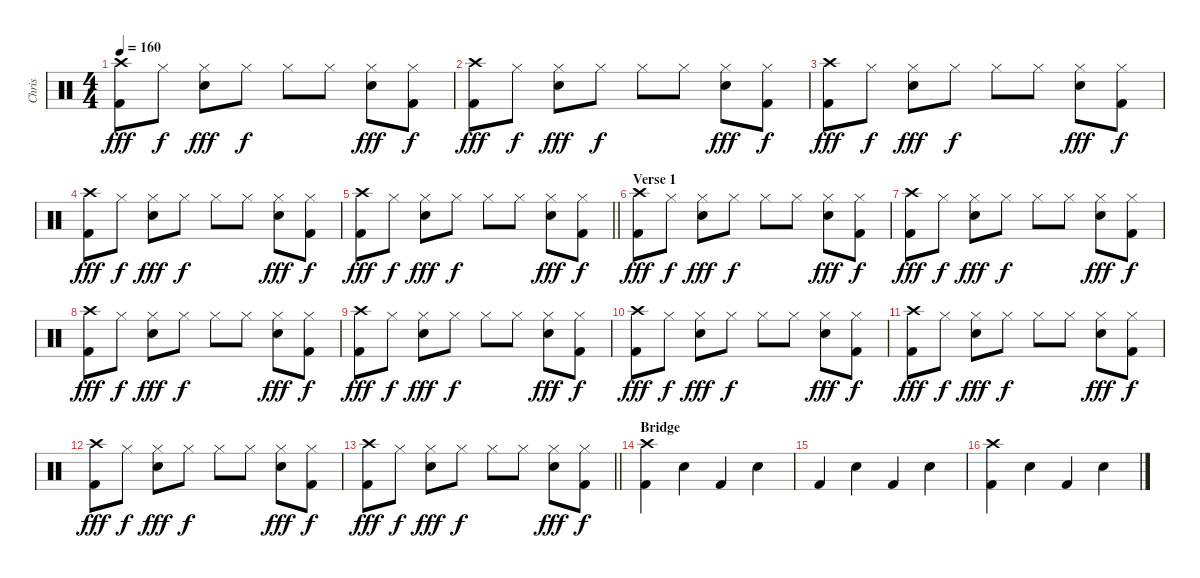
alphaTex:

\track ("Chris" "Chris") {instrument percussion}
\staff {score}
\articulation defaults
\ts (4 4)
\tempo 160
\clef neutral
\ks c
("Crash high (hit)" "Kick (hit) 2").8{dy fff} "Hi-Hat (closed)".8{dy f} ("Hi-Hat (closed)" "Snare (hit) 2").8{dy fff} "Hi-Hat (closed)".8{dy f} "Hi-Hat (closed)".8 "Hi-Hat (closed)".8 ("Hi-Hat (closed)" "Snare (hit) 2").8{dy fff} ("Hi-Hat (closed)" "Kick (hit) 2").8{dy f} |
("Crash high (hit)" "Kick (hit) 2").8{dy fff} "Hi-Hat (closed)".8{dy f} ("Hi-Hat (closed)" "Snare (hit) 2").8{dy fff} "Hi-Hat (closed)".8{dy f} "Hi-Hat (closed)".8 "Hi-Hat (closed)".8 ("Hi-Hat (closed)" "Snare (hit) 2").8{dy fff} ("Hi-Hat (closed)" "Kick (hit) 2").8{dy f} |
("Crash high (hit)" "Kick (hit) 2").8{dy fff} "Hi-Hat (closed)".8{dy f} ("Hi-Hat (closed)" "Snare (hit) 2").8{dy fff} "Hi-Hat (closed)".8{dy f} "Hi-Hat (closed)".8 "Hi-Hat (closed)".8 ("Hi-Hat (closed)" "Snare (hit) 2").8{dy fff} ("Hi-Hat (closed)" "Kick (hit) 2").8{dy f} |
("Crash high (hit)" "Kick (hit) 2").8{dy fff} "Hi-Hat (closed)".8{dy f} ("Hi-Hat (closed)" "Snare (hit) 2").8{dy fff} "Hi-Hat (closed)".8{dy f} "Hi-Hat (closed)".8 "Hi-Hat (closed)".8 ("Hi-Hat (closed)" "Snare (hit) 2").8{dy fff} ("Hi-Hat (closed)" "Kick (hit) 2").8{dy f} |
\barLineRight lightlight
("Crash high (hit)" "Kick (hit) 2").8{dy fff} "Hi-Hat (closed)".8{dy f} ("Hi-Hat (closed)" "Snare (hit) 2").8{dy fff} "Hi-Hat (closed)".8{dy f} "Hi-Hat (closed)".8 "Hi-Hat (closed)".8 ("Hi-Hat (closed)" "Snare (hit) 2").8{dy fff} ("Hi-Hat (closed)" "Kick (hit) 2").8{dy f} |
\section ("" "Verse 1")
("Crash high (hit)" "Kick (hit) 2").8{dy fff} "Hi-Hat (closed)".8{dy f} ("Hi-Hat (closed)" "Snare (hit) 2").8{dy fff} "Hi-Hat (closed)".8{dy f} "Hi-Hat (closed)".8 "Hi-Hat (closed)".8 ("Hi-Hat (closed)" "Snare (hit) 2").8{dy fff} ("Hi-Hat (closed)" "Kick (hit) 2").8{dy f} |
("Crash high (hit)" "Kick (hit) 2").8{dy fff} "Hi-Hat (closed)".8{dy f} ("Hi-Hat (closed)" "Snare (hit) 2").8{dy fff} "Hi-Hat (closed)".8{dy f} "Hi-Hat (closed)".8 "Hi-Hat (closed)".8 ("Hi-Hat (closed)" "Snare (hit) 2").8{dy fff} ("Hi-Hat (closed)" "Kick (hit) 2").8{dy f} |
("Crash high (hit)" "Kick (hit) 2").8{dy fff} "Hi-Hat (closed)".8{dy f} ("Hi-Hat (closed)" "Snare (hit) 2").8{dy fff} "Hi-Hat (closed)".8{dy f} "Hi-Hat (closed)".8 "Hi-Hat (closed)".8 ("Hi-Hat (closed)" "Snare (hit) 2").8{dy fff} ("Hi-Hat (closed)" "Kick (hit) 2").8{dy f} |
("Crash high (hit)" "Kick (hit) 2").8{dy fff} "Hi-Hat (closed)".8{dy f} ("Hi-Hat (closed)" "Snare (hit) 2").8{dy fff} "Hi-Hat (closed)".8{dy f} "Hi-Hat (closed)".8 "Hi-Hat (closed)".8 ("Hi-Hat (closed)" "Snare (hit) 2").8{dy fff} ("Hi-Hat (closed)" "Kick (hit) 2").8{dy f} |
("Crash high (hit)" "Kick (hit) 2").8{dy fff} "Hi-Hat (closed)".8{dy f} ("Hi-Hat (closed)" "Snare (hit) 2").8{dy fff} "Hi-Hat (closed)".8{dy f} "Hi-Hat (closed)".8 "Hi-Hat (closed)".8 ("Hi-Hat (closed)" "Snare (hit) 2").8{dy fff} ("Hi-Hat (closed)" "Kick (hit) 2").8{dy f} |
("Crash high (hit)" "Kick (hit) 2").8{dy fff} "Hi-Hat (closed)".8{dy f} ("Hi-Hat (closed)" "Snare (hit) 2").8{dy fff} "Hi-Hat (closed)".8{dy f} "Hi-Hat (closed)".8 "Hi-Hat (closed)".8 ("Hi-Hat (closed)" "Snare (hit) 2").8{dy fff} ("Hi-Hat (closed)" "Kick (hit) 2").8{dy f} |
("Crash high (hit)" "Kick (hit) 2").8{dy fff} "Hi-Hat (closed)".8{dy f} ("Hi-Hat (closed)" "Snare (hit) 2").8{dy fff} "Hi-Hat (closed)".8{dy f} "Hi-Hat (closed)".8 "Hi-Hat (closed)".8 ("Hi-Hat (closed)" "Snare (hit) 2").8{dy fff} ("Hi-Hat (closed)" "Kick (hit) 2").8{dy f} |
\barLineRight lightlight
("Crash high (hit)" "Kick (hit) 2").8{dy fff} "Hi-Hat (closed)".8{dy f} ("Hi-Hat (closed)" "Snare (hit) 2").8{dy fff} "Hi-Hat (closed)".8{dy f} "Hi-Hat (closed)".8 "Hi-Hat (closed)".8 ("Hi-Hat (closed)" "Snare (hit) 2").8{dy fff} ("Hi-Hat (closed)" "Kick (hit) 2").8{dy f} |
\section ("" "Bridge")
("Crash high (hit)" "Kick (hit) 2").4 "Electric Snare (hit)".4 "Kick (hit) 2".4 "Electric Snare (hit)".4 |
"Kick (hit) 2".4 "Electric Snare (hit)".4 "Kick (hit) 2".4 "Electric Snare (hit)".4 |
("Crash high (hit)" "Kick (hit) 2").4 "Electric Snare (hit)".4 "Kick (hit) 2".4 "Electric Snare (hit)".4
